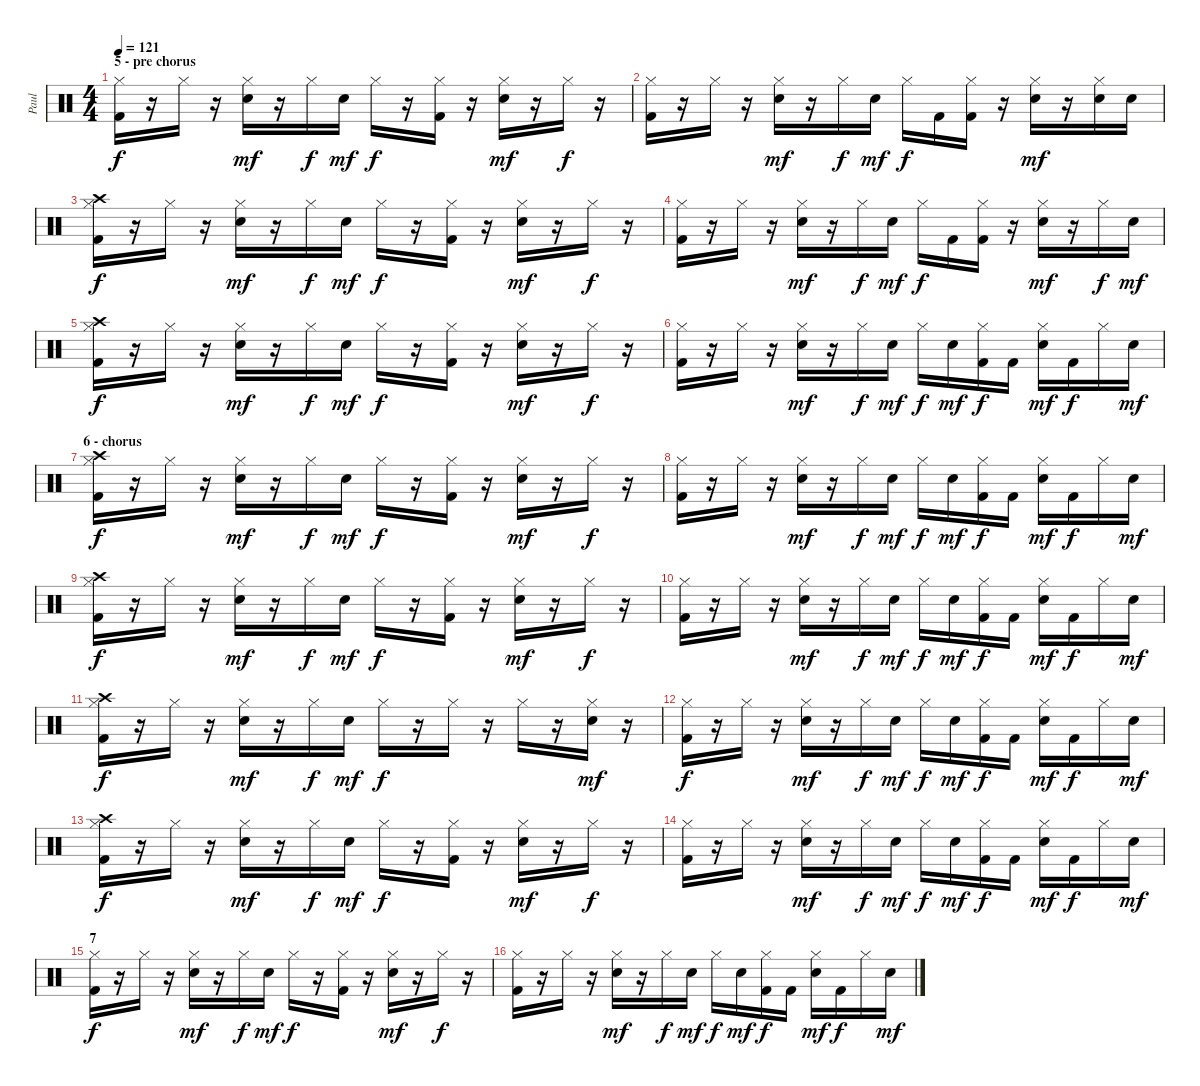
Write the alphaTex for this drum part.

\track ("Paul" "Paul") {instrument percussion}
\staff {score}
\articulation defaults
\ts (4 4)
\section ("" "5 - pre chorus")
\tempo 121
\clef neutral
\ks c
("Hi-Hat (closed)" "Kick (hit) 2").16{dy f} r.16 "Hi-Hat (closed)".16 r.16 ("Hi-Hat (closed)" "Snare (hit) 2").16{dy mf} r.16 "Hi-Hat (closed)".16{dy f} "Snare (hit) 2".16{dy mf} "Hi-Hat (closed)".16{dy f} r.16 ("Hi-Hat (closed)" "Kick (hit) 2").16 r.16 ("Hi-Hat (closed)" "Snare (hit) 2").16{dy mf} r.16 "Hi-Hat (closed)".16{dy f} r.16 |
("Hi-Hat (closed)" "Kick (hit) 2").16 r.16 "Hi-Hat (closed)".16 r.16 ("Hi-Hat (closed)" "Snare (hit) 2").16{dy mf} r.16 "Hi-Hat (closed)".16{dy f} "Snare (hit) 2".16{dy mf} "Hi-Hat (closed)".16{dy f} "Kick (hit) 2".16 ("Hi-Hat (closed)" "Kick (hit) 2").16 r.16 ("Hi-Hat (closed)" "Snare (hit) 2").16{dy mf} r.16 ("Hi-Hat (closed)" "Snare (hit) 2").16 "Snare (hit) 2".16 |
("Hi-Hat (closed)" "Crash high (hit)" "Kick (hit) 2").16{dy f} r.16 "Hi-Hat (closed)".16 r.16 ("Hi-Hat (closed)" "Snare (hit) 2").16{dy mf} r.16 "Hi-Hat (closed)".16{dy f} "Snare (hit) 2".16{dy mf} "Hi-Hat (closed)".16{dy f} r.16 ("Hi-Hat (closed)" "Kick (hit) 2").16 r.16 ("Hi-Hat (closed)" "Snare (hit) 2").16{dy mf} r.16 "Hi-Hat (closed)".16{dy f} r.16 |
("Hi-Hat (closed)" "Kick (hit) 2").16 r.16 "Hi-Hat (closed)".16 r.16 ("Hi-Hat (closed)" "Snare (hit) 2").16{dy mf} r.16 "Hi-Hat (closed)".16{dy f} "Snare (hit) 2".16{dy mf} "Hi-Hat (closed)".16{dy f} "Kick (hit) 2".16 ("Hi-Hat (closed)" "Kick (hit) 2").16 r.16 ("Hi-Hat (closed)" "Snare (hit) 2").16{dy mf} r.16 "Hi-Hat (closed)".16{dy f} "Snare (hit) 2".16{dy mf} |
("Hi-Hat (closed)" "Crash high (hit)" "Kick (hit) 2").16{dy f} r.16 "Hi-Hat (closed)".16 r.16 ("Hi-Hat (closed)" "Snare (hit) 2").16{dy mf} r.16 "Hi-Hat (closed)".16{dy f} "Snare (hit) 2".16{dy mf} "Hi-Hat (closed)".16{dy f} r.16 ("Hi-Hat (closed)" "Kick (hit) 2").16 r.16 ("Hi-Hat (closed)" "Snare (hit) 2").16{dy mf} r.16 "Hi-Hat (closed)".16{dy f} r.16 |
("Hi-Hat (closed)" "Kick (hit) 2").16 r.16 "Hi-Hat (closed)".16 r.16 ("Hi-Hat (closed)" "Snare (hit) 2").16{dy mf} r.16 "Hi-Hat (closed)".16{dy f} "Snare (hit) 2".16{dy mf} "Hi-Hat (closed)".16{dy f} "Snare (hit) 2".16{dy mf} ("Hi-Hat (closed)" "Kick (hit) 2").16{dy f} "Kick (hit) 2".16 ("Hi-Hat (closed)" "Snare (hit) 2").16{dy mf} "Kick (hit) 2".16{dy f} "Hi-Hat (closed)".16 "Snare (hit) 2".16{dy mf} |
\section ("" "6 - chorus")
("Hi-Hat (closed)" "Crash high (hit)" "Kick (hit) 2").16{dy f} r.16 "Hi-Hat (closed)".16 r.16 ("Hi-Hat (closed)" "Snare (hit) 2").16{dy mf} r.16 "Hi-Hat (closed)".16{dy f} "Snare (hit) 2".16{dy mf} "Hi-Hat (closed)".16{dy f} r.16 ("Hi-Hat (closed)" "Kick (hit) 2").16 r.16 ("Hi-Hat (closed)" "Snare (hit) 2").16{dy mf} r.16 "Hi-Hat (closed)".16{dy f} r.16 |
("Hi-Hat (closed)" "Kick (hit) 2").16 r.16 "Hi-Hat (closed)".16 r.16 ("Hi-Hat (closed)" "Snare (hit) 2").16{dy mf} r.16 "Hi-Hat (closed)".16{dy f} "Snare (hit) 2".16{dy mf} "Hi-Hat (closed)".16{dy f} "Snare (hit) 2".16{dy mf} ("Hi-Hat (closed)" "Kick (hit) 2").16{dy f} "Kick (hit) 2".16 ("Hi-Hat (closed)" "Snare (hit) 2").16{dy mf} "Kick (hit) 2".16{dy f} "Hi-Hat (closed)".16 "Snare (hit) 2".16{dy mf} |
("Hi-Hat (closed)" "Crash high (hit)" "Kick (hit) 2").16{dy f} r.16 "Hi-Hat (closed)".16 r.16 ("Hi-Hat (closed)" "Snare (hit) 2").16{dy mf} r.16 "Hi-Hat (closed)".16{dy f} "Snare (hit) 2".16{dy mf} "Hi-Hat (closed)".16{dy f} r.16 ("Hi-Hat (closed)" "Kick (hit) 2").16 r.16 ("Hi-Hat (closed)" "Snare (hit) 2").16{dy mf} r.16 "Hi-Hat (closed)".16{dy f} r.16 |
("Hi-Hat (closed)" "Kick (hit) 2").16 r.16 "Hi-Hat (closed)".16 r.16 ("Hi-Hat (closed)" "Snare (hit) 2").16{dy mf} r.16 "Hi-Hat (closed)".16{dy f} "Snare (hit) 2".16{dy mf} "Hi-Hat (closed)".16{dy f} "Snare (hit) 2".16{dy mf} ("Hi-Hat (closed)" "Kick (hit) 2").16{dy f} "Kick (hit) 2".16 ("Hi-Hat (closed)" "Snare (hit) 2").16{dy mf} "Kick (hit) 2".16{dy f} "Hi-Hat (closed)".16 "Snare (hit) 2".16{dy mf} |
("Hi-Hat (closed)" "Crash high (hit)" "Kick (hit) 2").16{dy f} r.16 "Hi-Hat (closed)".16 r.16 ("Hi-Hat (closed)" "Snare (hit) 2").16{dy mf} r.16 "Hi-Hat (closed)".16{dy f} "Snare (hit) 2".16{dy mf} "Hi-Hat (closed)".16{dy f} r.16 "Hi-Hat (closed)".16 r.16 "Hi-Hat (closed)".16 r.16 ("Hi-Hat (closed)" "Snare (hit) 2").16{dy mf} r.16 |
("Hi-Hat (closed)" "Kick (hit) 2").16{dy f} r.16 "Hi-Hat (closed)".16 r.16 ("Hi-Hat (closed)" "Snare (hit) 2").16{dy mf} r.16 "Hi-Hat (closed)".16{dy f} "Snare (hit) 2".16{dy mf} "Hi-Hat (closed)".16{dy f} "Snare (hit) 2".16{dy mf} ("Hi-Hat (closed)" "Kick (hit) 2").16{dy f} "Kick (hit) 2".16 ("Hi-Hat (closed)" "Snare (hit) 2").16{dy mf} "Kick (hit) 2".16{dy f} "Hi-Hat (closed)".16 "Snare (hit) 2".16{dy mf} |
("Hi-Hat (closed)" "Crash high (hit)" "Kick (hit) 2").16{dy f} r.16 "Hi-Hat (closed)".16 r.16 ("Hi-Hat (closed)" "Snare (hit) 2").16{dy mf} r.16 "Hi-Hat (closed)".16{dy f} "Snare (hit) 2".16{dy mf} "Hi-Hat (closed)".16{dy f} r.16 ("Hi-Hat (closed)" "Kick (hit) 2").16 r.16 ("Hi-Hat (closed)" "Snare (hit) 2").16{dy mf} r.16 "Hi-Hat (closed)".16{dy f} r.16 |
("Hi-Hat (closed)" "Kick (hit) 2").16 r.16 "Hi-Hat (closed)".16 r.16 ("Hi-Hat (closed)" "Snare (hit) 2").16{dy mf} r.16 "Hi-Hat (closed)".16{dy f} "Snare (hit) 2".16{dy mf} "Hi-Hat (closed)".16{dy f} "Snare (hit) 2".16{dy mf} ("Hi-Hat (closed)" "Kick (hit) 2").16{dy f} "Kick (hit) 2".16 ("Hi-Hat (closed)" "Snare (hit) 2").16{dy mf} "Kick (hit) 2".16{dy f} "Hi-Hat (closed)".16 "Snare (hit) 2".16{dy mf} |
\section ("" "7")
("Hi-Hat (closed)" "Kick (hit) 2").16{dy f} r.16 "Hi-Hat (closed)".16 r.16 ("Hi-Hat (closed)" "Snare (hit) 2").16{dy mf} r.16 "Hi-Hat (closed)".16{dy f} "Snare (hit) 2".16{dy mf} "Hi-Hat (closed)".16{dy f} r.16 ("Hi-Hat (closed)" "Kick (hit) 2").16 r.16 ("Hi-Hat (closed)" "Snare (hit) 2").16{dy mf} r.16 "Hi-Hat (closed)".16{dy f} r.16 |
("Hi-Hat (closed)" "Kick (hit) 2").16 r.16 "Hi-Hat (closed)".16 r.16 ("Hi-Hat (closed)" "Snare (hit) 2").16{dy mf} r.16 "Hi-Hat (closed)".16{dy f} "Snare (hit) 2".16{dy mf} "Hi-Hat (closed)".16{dy f} "Snare (hit) 2".16{dy mf} ("Hi-Hat (closed)" "Kick (hit) 2").16{dy f} "Kick (hit) 2".16 ("Hi-Hat (closed)" "Snare (hit) 2").16{dy mf} "Kick (hit) 2".16{dy f} "Hi-Hat (closed)".16 "Snare (hit) 2".16{dy mf}
